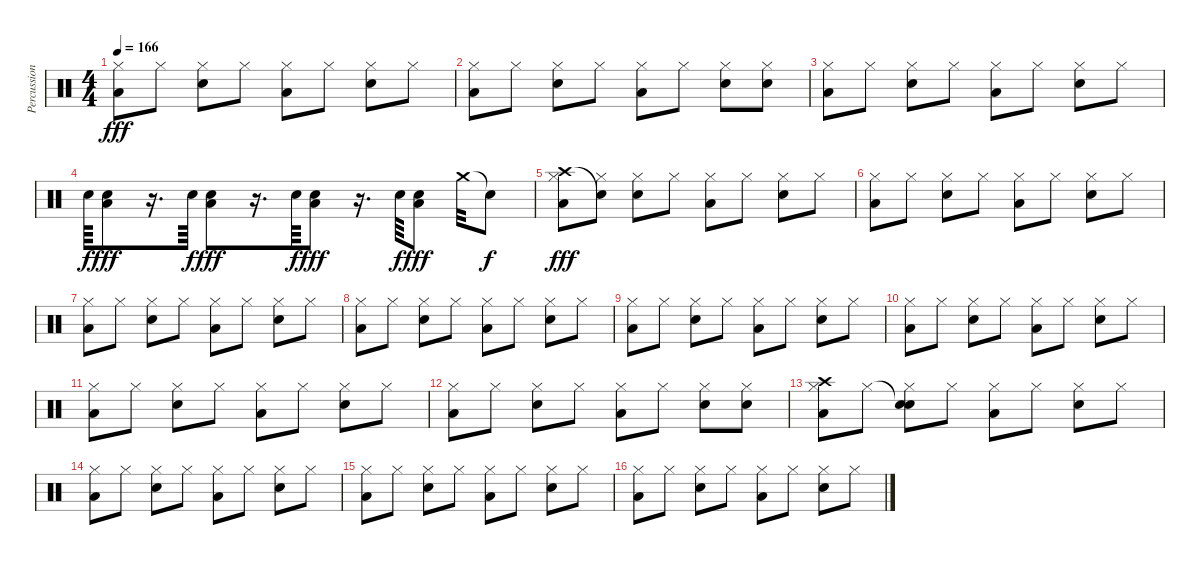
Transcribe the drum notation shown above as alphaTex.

\track ("Percussions" "Percussion") {instrument percussion}
\staff {score}
\articulation defaults
\ts (4 4)
\tempo 166
\clef neutral
\ks c
("Low Tom (hit)" "Hi-Hat (closed)").8{dy fff} "Hi-Hat (closed)".8 ("Snare (hit) 2" "Hi-Hat (closed)").8 "Hi-Hat (closed)".8 ("Low Tom (hit)" "Hi-Hat (closed)").8 "Hi-Hat (closed)".8 ("Snare (hit) 2" "Hi-Hat (closed)").8 "Hi-Hat (closed)".8 |
("Low Tom (hit)" "Hi-Hat (closed)").8 "Hi-Hat (closed)".8 ("Snare (hit) 2" "Hi-Hat (closed)").8 "Hi-Hat (closed)".8 ("Low Tom (hit)" "Hi-Hat (closed)").8 "Hi-Hat (closed)".8 ("Snare (hit) 2" "Hi-Hat (closed)").8 ("Snare (hit) 2" "Hi-Hat (closed)").8 |
("Low Tom (hit)" "Hi-Hat (closed)").8 "Hi-Hat (closed)".8 ("Snare (hit) 2" "Hi-Hat (closed)").8 "Hi-Hat (closed)".8 ("Low Tom (hit)" "Hi-Hat (closed)").8 "Hi-Hat (closed)".8 ("Snare (hit) 2" "Hi-Hat (closed)").8 "Hi-Hat (closed)".8 |
"Snare (hit) 2".64{dy f} ("Snare (hit) 2" "Low Tom (hit)").8{dy fff} r.16{d} "Snare (hit) 2".64{dy f} ("Snare (hit) 2" "Low Tom (hit)").8{dy fff} r.16{d} "Snare (hit) 2".64{dy f} ("Snare (hit) 2" "Low Tom (hit)").8{dy fff} r.16{d} "Snare (hit) 2".64{dy f} ("Snare (hit) 2" "Low Tom (hit)").8{dy fff} "Crash medium (hit)".32 "Snare (hit)"{t}.8{dy f} |
("Crash high (hit)" "Low Tom (hit)" "Hi-Hat (closed)").8{dy fff} ("Snare (hit)"{t} "Hi-Hat (closed)").8 ("Snare (hit) 2" "Hi-Hat (closed)").8 "Hi-Hat (closed)".8 ("Low Tom (hit)" "Hi-Hat (closed)").8 "Hi-Hat (closed)".8 ("Snare (hit) 2" "Hi-Hat (closed)").8 "Hi-Hat (closed)".8 |
("Low Tom (hit)" "Hi-Hat (closed)").8 "Hi-Hat (closed)".8 ("Snare (hit) 2" "Hi-Hat (closed)").8 "Hi-Hat (closed)".8 ("Low Tom (hit)" "Hi-Hat (closed)").8 "Hi-Hat (closed)".8 ("Snare (hit) 2" "Hi-Hat (closed)").8 "Hi-Hat (closed)".8 |
("Low Tom (hit)" "Hi-Hat (closed)").8 "Hi-Hat (closed)".8 ("Snare (hit) 2" "Hi-Hat (closed)").8 "Hi-Hat (closed)".8 ("Low Tom (hit)" "Hi-Hat (closed)").8 "Hi-Hat (closed)".8 ("Snare (hit) 2" "Hi-Hat (closed)").8 "Hi-Hat (closed)".8 |
("Low Tom (hit)" "Hi-Hat (closed)").8 "Hi-Hat (closed)".8 ("Snare (hit) 2" "Hi-Hat (closed)").8 "Hi-Hat (closed)".8 ("Low Tom (hit)" "Hi-Hat (closed)").8 "Hi-Hat (closed)".8 ("Snare (hit) 2" "Hi-Hat (closed)").8 "Hi-Hat (closed)".8 |
("Low Tom (hit)" "Hi-Hat (closed)").8 "Hi-Hat (closed)".8 ("Snare (hit) 2" "Hi-Hat (closed)").8 "Hi-Hat (closed)".8 ("Low Tom (hit)" "Hi-Hat (closed)").8 "Hi-Hat (closed)".8 ("Snare (hit) 2" "Hi-Hat (closed)").8 "Hi-Hat (closed)".8 |
("Low Tom (hit)" "Hi-Hat (closed)").8 "Hi-Hat (closed)".8 ("Snare (hit) 2" "Hi-Hat (closed)").8 "Hi-Hat (closed)".8 ("Low Tom (hit)" "Hi-Hat (closed)").8 "Hi-Hat (closed)".8 ("Snare (hit) 2" "Hi-Hat (closed)").8 "Hi-Hat (closed)".8 |
("Low Tom (hit)" "Hi-Hat (closed)").8 "Hi-Hat (closed)".8 ("Snare (hit) 2" "Hi-Hat (closed)").8 "Hi-Hat (closed)".8 ("Low Tom (hit)" "Hi-Hat (closed)").8 "Hi-Hat (closed)".8 ("Snare (hit) 2" "Hi-Hat (closed)").8 "Hi-Hat (closed)".8 |
("Low Tom (hit)" "Hi-Hat (closed)").8 "Hi-Hat (closed)".8 ("Snare (hit) 2" "Hi-Hat (closed)").8 "Hi-Hat (closed)".8 ("Low Tom (hit)" "Hi-Hat (closed)").8 "Hi-Hat (closed)".8 ("Snare (hit) 2" "Hi-Hat (closed)").8 ("Snare (hit) 2" "Hi-Hat (closed)").8 |
("Crash high (hit)" "Low Tom (hit)" "Hi-Hat (closed)").8 "Hi-Hat (closed)".8 ("Snare (hit)"{t} "Snare (hit) 2" "Hi-Hat (closed)").8 "Hi-Hat (closed)".8 ("Low Tom (hit)" "Hi-Hat (closed)").8 "Hi-Hat (closed)".8 ("Snare (hit) 2" "Hi-Hat (closed)").8 "Hi-Hat (closed)".8 |
("Low Tom (hit)" "Hi-Hat (closed)").8 "Hi-Hat (closed)".8 ("Snare (hit) 2" "Hi-Hat (closed)").8 "Hi-Hat (closed)".8 ("Low Tom (hit)" "Hi-Hat (closed)").8 "Hi-Hat (closed)".8 ("Snare (hit) 2" "Hi-Hat (closed)").8 "Hi-Hat (closed)".8 |
("Low Tom (hit)" "Hi-Hat (closed)").8 "Hi-Hat (closed)".8 ("Snare (hit) 2" "Hi-Hat (closed)").8 "Hi-Hat (closed)".8 ("Low Tom (hit)" "Hi-Hat (closed)").8 "Hi-Hat (closed)".8 ("Snare (hit) 2" "Hi-Hat (closed)").8 "Hi-Hat (closed)".8 |
("Low Tom (hit)" "Hi-Hat (closed)").8 "Hi-Hat (closed)".8 ("Snare (hit) 2" "Hi-Hat (closed)").8 "Hi-Hat (closed)".8 ("Low Tom (hit)" "Hi-Hat (closed)").8 "Hi-Hat (closed)".8 ("Snare (hit) 2" "Hi-Hat (closed)").8 "Hi-Hat (closed)".8
